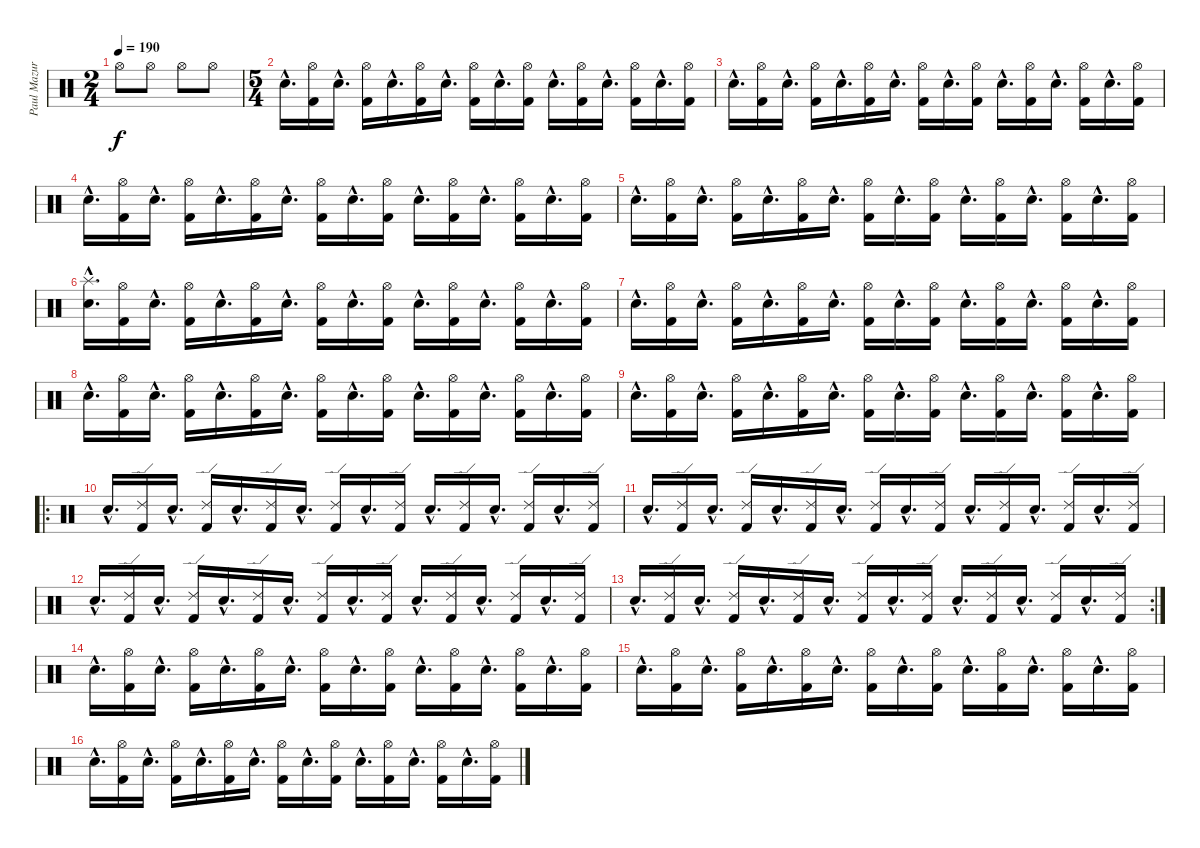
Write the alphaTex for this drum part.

\track ("Paul Mazurkiewicz" "Paul Mazur") {instrument percussion}
\staff {score}
\articulation defaults
\ts (2 4)
\tempo 190
\clef neutral
\ks c "Hi-Hat (open)".8{dy f} "Hi-Hat (open)".8 "Hi-Hat (open)".8 "Hi-Hat (open)".8
|
\ts (5 4)
"Snare (hit) 2"{hac}.16{d} ("Hi-Hat (open)" "Kick (hit) 2").16 "Snare (hit) 2"{hac}.16{d} ("Hi-Hat (open)" "Kick (hit) 2").16 "Snare (hit) 2"{hac}.16{d} ("Hi-Hat (open)" "Kick (hit) 2").16 "Snare (hit) 2"{hac}.16{d} ("Hi-Hat (open)" "Kick (hit) 2").16 "Snare (hit) 2"{hac}.16{d} ("Hi-Hat (open)" "Kick (hit) 2").16 "Snare (hit) 2"{hac}.16{d} ("Hi-Hat (open)" "Kick (hit) 2").16 "Snare (hit) 2"{hac}.16{d} ("Hi-Hat (open)" "Kick (hit) 2").16 "Snare (hit) 2"{hac}.16{d} ("Hi-Hat (open)" "Kick (hit) 2").16 |
"Snare (hit) 2"{hac}.16{d} ("Hi-Hat (open)" "Kick (hit) 2").16 "Snare (hit) 2"{hac}.16{d} ("Hi-Hat (open)" "Kick (hit) 2").16 "Snare (hit) 2"{hac}.16{d} ("Hi-Hat (open)" "Kick (hit) 2").16 "Snare (hit) 2"{hac}.16{d} ("Hi-Hat (open)" "Kick (hit) 2").16 "Snare (hit) 2"{hac}.16{d} ("Hi-Hat (open)" "Kick (hit) 2").16 "Snare (hit) 2"{hac}.16{d} ("Hi-Hat (open)" "Kick (hit) 2").16 "Snare (hit) 2"{hac}.16{d} ("Hi-Hat (open)" "Kick (hit) 2").16 "Snare (hit) 2"{hac}.16{d} ("Hi-Hat (open)" "Kick (hit) 2").16 |
"Snare (hit) 2"{hac}.16{d} ("Hi-Hat (open)" "Kick (hit) 2").16 "Snare (hit) 2"{hac}.16{d} ("Hi-Hat (open)" "Kick (hit) 2").16 "Snare (hit) 2"{hac}.16{d} ("Hi-Hat (open)" "Kick (hit) 2").16 "Snare (hit) 2"{hac}.16{d} ("Hi-Hat (open)" "Kick (hit) 2").16 "Snare (hit) 2"{hac}.16{d} ("Hi-Hat (open)" "Kick (hit) 2").16 "Snare (hit) 2"{hac}.16{d} ("Hi-Hat (open)" "Kick (hit) 2").16 "Snare (hit) 2"{hac}.16{d} ("Hi-Hat (open)" "Kick (hit) 2").16 "Snare (hit) 2"{hac}.16{d} ("Hi-Hat (open)" "Kick (hit) 2").16 |
"Snare (hit) 2"{hac}.16{d} ("Hi-Hat (open)" "Kick (hit) 2").16 "Snare (hit) 2"{hac}.16{d} ("Hi-Hat (open)" "Kick (hit) 2").16 "Snare (hit) 2"{hac}.16{d} ("Hi-Hat (open)" "Kick (hit) 2").16 "Snare (hit) 2"{hac}.16{d} ("Hi-Hat (open)" "Kick (hit) 2").16 "Snare (hit) 2"{hac}.16{d} ("Hi-Hat (open)" "Kick (hit) 2").16 "Snare (hit) 2"{hac}.16{d} ("Hi-Hat (open)" "Kick (hit) 2").16 "Snare (hit) 2"{hac}.16{d} ("Hi-Hat (open)" "Kick (hit) 2").16 "Snare (hit) 2"{hac}.16{d} ("Hi-Hat (open)" "Kick (hit) 2").16 |
("Splash (hit)"{hac} "Snare (hit) 2"{hac}).16{d} ("Hi-Hat (open)" "Kick (hit) 2").16 "Snare (hit) 2"{hac}.16{d} ("Hi-Hat (open)" "Kick (hit) 2").16 "Snare (hit) 2"{hac}.16{d} ("Hi-Hat (open)" "Kick (hit) 2").16 "Snare (hit) 2"{hac}.16{d} ("Hi-Hat (open)" "Kick (hit) 2").16 "Snare (hit) 2"{hac}.16{d} ("Hi-Hat (open)" "Kick (hit) 2").16 "Snare (hit) 2"{hac}.16{d} ("Hi-Hat (open)" "Kick (hit) 2").16 "Snare (hit) 2"{hac}.16{d} ("Hi-Hat (open)" "Kick (hit) 2").16 "Snare (hit) 2"{hac}.16{d} ("Hi-Hat (open)" "Kick (hit) 2").16 |
"Snare (hit) 2"{hac}.16{d} ("Hi-Hat (open)" "Kick (hit) 2").16 "Snare (hit) 2"{hac}.16{d} ("Hi-Hat (open)" "Kick (hit) 2").16 "Snare (hit) 2"{hac}.16{d} ("Hi-Hat (open)" "Kick (hit) 2").16 "Snare (hit) 2"{hac}.16{d} ("Hi-Hat (open)" "Kick (hit) 2").16 "Snare (hit) 2"{hac}.16{d} ("Hi-Hat (open)" "Kick (hit) 2").16 "Snare (hit) 2"{hac}.16{d} ("Hi-Hat (open)" "Kick (hit) 2").16 "Snare (hit) 2"{hac}.16{d} ("Hi-Hat (open)" "Kick (hit) 2").16 "Snare (hit) 2"{hac}.16{d} ("Hi-Hat (open)" "Kick (hit) 2").16 |
"Snare (hit) 2"{hac}.16{d} ("Hi-Hat (open)" "Kick (hit) 2").16 "Snare (hit) 2"{hac}.16{d} ("Hi-Hat (open)" "Kick (hit) 2").16 "Snare (hit) 2"{hac}.16{d} ("Hi-Hat (open)" "Kick (hit) 2").16 "Snare (hit) 2"{hac}.16{d} ("Hi-Hat (open)" "Kick (hit) 2").16 "Snare (hit) 2"{hac}.16{d} ("Hi-Hat (open)" "Kick (hit) 2").16 "Snare (hit) 2"{hac}.16{d} ("Hi-Hat (open)" "Kick (hit) 2").16 "Snare (hit) 2"{hac}.16{d} ("Hi-Hat (open)" "Kick (hit) 2").16 "Snare (hit) 2"{hac}.16{d} ("Hi-Hat (open)" "Kick (hit) 2").16 |
"Snare (hit) 2"{hac}.16{d} ("Hi-Hat (open)" "Kick (hit) 2").16 "Snare (hit) 2"{hac}.16{d} ("Hi-Hat (open)" "Kick (hit) 2").16 "Snare (hit) 2"{hac}.16{d} ("Hi-Hat (open)" "Kick (hit) 2").16 "Snare (hit) 2"{hac}.16{d} ("Hi-Hat (open)" "Kick (hit) 2").16 "Snare (hit) 2"{hac}.16{d} ("Hi-Hat (open)" "Kick (hit) 2").16 "Snare (hit) 2"{hac}.16{d} ("Hi-Hat (open)" "Kick (hit) 2").16 "Snare (hit) 2"{hac}.16{d} ("Hi-Hat (open)" "Kick (hit) 2").16 "Snare (hit) 2"{hac}.16{d} ("Hi-Hat (open)" "Kick (hit) 2").16 |
\ro "Snare (hit) 2"{hac}.16{d}
("Ride (edge) 2" "Kick (hit) 2").16 "Snare (hit) 2"{hac}.16{d} ("Ride (edge) 2" "Kick (hit) 2").16 "Snare (hit) 2"{hac}.16{d} ("Ride (edge) 2" "Kick (hit) 2").16 "Snare (hit) 2"{hac}.16{d} ("Ride (edge) 2" "Kick (hit) 2").16 "Snare (hit) 2"{hac}.16{d} ("Ride (edge) 2" "Kick (hit) 2").16 "Snare (hit) 2"{hac}.16{d} ("Ride (edge) 2" "Kick (hit) 2").16 "Snare (hit) 2"{hac}.16{d} ("Ride (edge) 2" "Kick (hit) 2").16 "Snare (hit) 2"{hac}.16{d} ("Ride (edge) 2" "Kick (hit) 2").16 |
"Snare (hit) 2"{hac}.16{d} ("Ride (edge) 2" "Kick (hit) 2").16 "Snare (hit) 2"{hac}.16{d} ("Ride (edge) 2" "Kick (hit) 2").16 "Snare (hit) 2"{hac}.16{d} ("Ride (edge) 2" "Kick (hit) 2").16 "Snare (hit) 2"{hac}.16{d} ("Ride (edge) 2" "Kick (hit) 2").16 "Snare (hit) 2"{hac}.16{d} ("Ride (edge) 2" "Kick (hit) 2").16 "Snare (hit) 2"{hac}.16{d} ("Ride (edge) 2" "Kick (hit) 2").16 "Snare (hit) 2"{hac}.16{d} ("Ride (edge) 2" "Kick (hit) 2").16 "Snare (hit) 2"{hac}.16{d} ("Ride (edge) 2" "Kick (hit) 2").16 |
"Snare (hit) 2"{hac}.16{d} ("Ride (edge) 2" "Kick (hit) 2").16 "Snare (hit) 2"{hac}.16{d} ("Ride (edge) 2" "Kick (hit) 2").16 "Snare (hit) 2"{hac}.16{d} ("Ride (edge) 2" "Kick (hit) 2").16 "Snare (hit) 2"{hac}.16{d} ("Ride (edge) 2" "Kick (hit) 2").16 "Snare (hit) 2"{hac}.16{d} ("Ride (edge) 2" "Kick (hit) 2").16 "Snare (hit) 2"{hac}.16{d} ("Ride (edge) 2" "Kick (hit) 2").16 "Snare (hit) 2"{hac}.16{d} ("Ride (edge) 2" "Kick (hit) 2").16 "Snare (hit) 2"{hac}.16{d} ("Ride (edge) 2" "Kick (hit) 2").16 |
\rc 2 "Snare (hit) 2"{hac}.16{d}
("Ride (edge) 2" "Kick (hit) 2").16 "Snare (hit) 2"{hac}.16{d} ("Ride (edge) 2" "Kick (hit) 2").16 "Snare (hit) 2"{hac}.16{d} ("Ride (edge) 2" "Kick (hit) 2").16 "Snare (hit) 2"{hac}.16{d} ("Ride (edge) 2" "Kick (hit) 2").16 "Snare (hit) 2"{hac}.16{d} ("Ride (edge) 2" "Kick (hit) 2").16 "Snare (hit) 2"{hac}.16{d} ("Ride (edge) 2" "Kick (hit) 2").16 "Snare (hit) 2"{hac}.16{d} ("Ride (edge) 2" "Kick (hit) 2").16 "Snare (hit) 2"{hac}.16{d} ("Ride (edge) 2" "Kick (hit) 2").16 |
"Snare (hit) 2"{hac}.16{d} ("Hi-Hat (open)" "Kick (hit) 2").16 "Snare (hit) 2"{hac}.16{d} ("Hi-Hat (open)" "Kick (hit) 2").16 "Snare (hit) 2"{hac}.16{d} ("Hi-Hat (open)" "Kick (hit) 2").16 "Snare (hit) 2"{hac}.16{d} ("Hi-Hat (open)" "Kick (hit) 2").16 "Snare (hit) 2"{hac}.16{d} ("Hi-Hat (open)" "Kick (hit) 2").16 "Snare (hit) 2"{hac}.16{d} ("Hi-Hat (open)" "Kick (hit) 2").16 "Snare (hit) 2"{hac}.16{d} ("Hi-Hat (open)" "Kick (hit) 2").16 "Snare (hit) 2"{hac}.16{d} ("Hi-Hat (open)" "Kick (hit) 2").16 |
"Snare (hit) 2"{hac}.16{d} ("Hi-Hat (open)" "Kick (hit) 2").16 "Snare (hit) 2"{hac}.16{d} ("Hi-Hat (open)" "Kick (hit) 2").16 "Snare (hit) 2"{hac}.16{d} ("Hi-Hat (open)" "Kick (hit) 2").16 "Snare (hit) 2"{hac}.16{d} ("Hi-Hat (open)" "Kick (hit) 2").16 "Snare (hit) 2"{hac}.16{d} ("Hi-Hat (open)" "Kick (hit) 2").16 "Snare (hit) 2"{hac}.16{d} ("Hi-Hat (open)" "Kick (hit) 2").16 "Snare (hit) 2"{hac}.16{d} ("Hi-Hat (open)" "Kick (hit) 2").16 "Snare (hit) 2"{hac}.16{d} ("Hi-Hat (open)" "Kick (hit) 2").16 |
"Snare (hit) 2"{hac}.16{d} ("Hi-Hat (open)" "Kick (hit) 2").16 "Snare (hit) 2"{hac}.16{d} ("Hi-Hat (open)" "Kick (hit) 2").16 "Snare (hit) 2"{hac}.16{d} ("Hi-Hat (open)" "Kick (hit) 2").16 "Snare (hit) 2"{hac}.16{d} ("Hi-Hat (open)" "Kick (hit) 2").16 "Snare (hit) 2"{hac}.16{d} ("Hi-Hat (open)" "Kick (hit) 2").16 "Snare (hit) 2"{hac}.16{d} ("Hi-Hat (open)" "Kick (hit) 2").16 "Snare (hit) 2"{hac}.16{d} ("Hi-Hat (open)" "Kick (hit) 2").16 "Snare (hit) 2"{hac}.16{d} ("Hi-Hat (open)" "Kick (hit) 2").16
